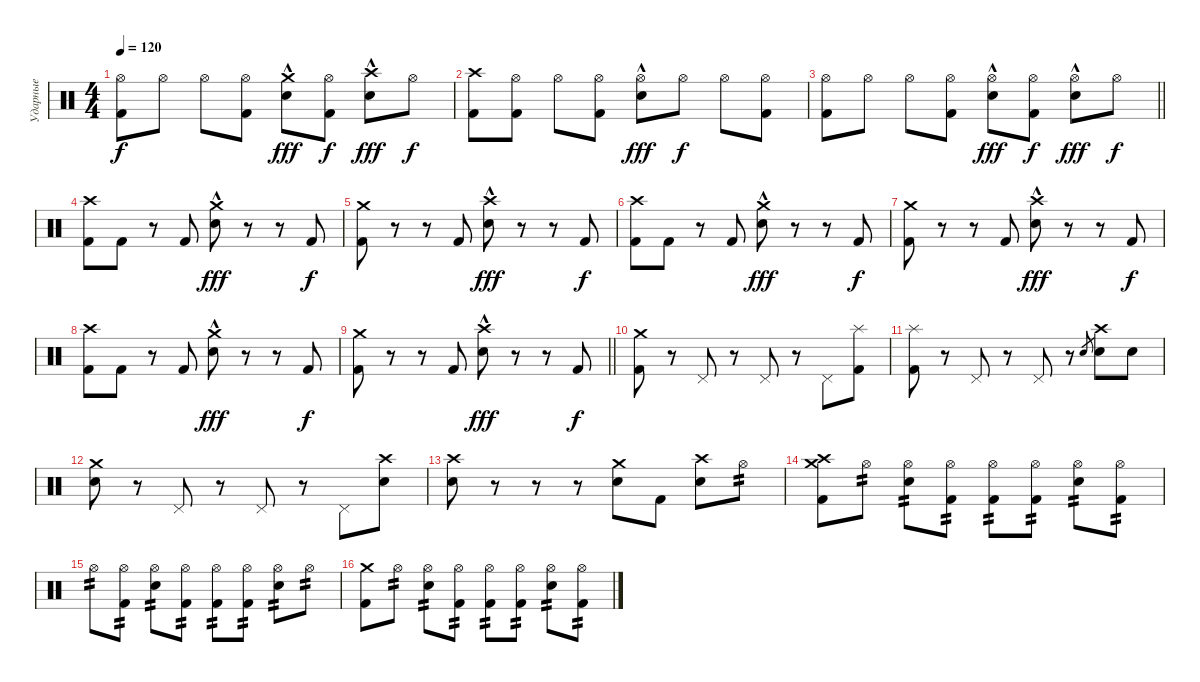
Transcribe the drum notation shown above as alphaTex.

\track ("Ударные" "Ударные") {instrument percussion}
\staff {score}
\articulation defaults
\ts (4 4)
\tempo 120
\clef neutral
\ks c
("Hi-Hat (open)" "Kick (hit) 2").8{dy f} "Hi-Hat (open)".8 "Hi-Hat (open)".8 ("Hi-Hat (open)" "Kick (hit) 2").8 ("Crash medium (hit)" "Electric Snare (hit)"{hac}).8{dy fff} ("Hi-Hat (open)" "Kick (hit) 2").8{dy f} ("Crash high (hit)" "Electric Snare (hit)"{hac}).8{dy fff} "Hi-Hat (open)".8{dy f} |
("Crash high (hit)" "Kick (hit) 2").8 ("Hi-Hat (open)" "Kick (hit) 2").8 "Hi-Hat (open)".8 ("Hi-Hat (open)" "Kick (hit) 2").8 ("Hi-Hat (open)" "Electric Snare (hit)"{hac}).8{dy fff} "Hi-Hat (open)".8{dy f} "Hi-Hat (open)".8 ("Hi-Hat (open)" "Kick (hit) 2").8 |
\barLineRight lightlight
("Hi-Hat (open)" "Kick (hit) 2").8 "Hi-Hat (open)".8 "Hi-Hat (open)".8 ("Hi-Hat (open)" "Kick (hit) 2").8 ("Hi-Hat (open)" "Electric Snare (hit)"{hac}).8{dy fff} ("Hi-Hat (open)" "Kick (hit) 2").8{dy f} ("Hi-Hat (open)" "Electric Snare (hit)"{hac}).8{dy fff} "Hi-Hat (open)".8{dy f} |
("Crash high (hit)" "Kick (hit) 2").8 "Kick (hit) 2".8 r.8 "Kick (hit) 2".8 ("Crash medium (hit)" "Electric Snare (hit)"{hac}).8{dy fff} r.8 r.8 "Kick (hit) 2".8{dy f} |
("Crash medium (hit)" "Kick (hit) 2").8 r.8 r.8 "Kick (hit) 2".8 ("Crash high (hit)" "Electric Snare (hit)"{hac}).8{dy fff} r.8 r.8 "Kick (hit) 2".8{dy f} |
("Crash high (hit)" "Kick (hit) 2").8 "Kick (hit) 2".8 r.8 "Kick (hit) 2".8 ("Crash medium (hit)" "Electric Snare (hit)"{hac}).8{dy fff} r.8 r.8 "Kick (hit) 2".8{dy f} |
("Crash medium (hit)" "Kick (hit) 2").8 r.8 r.8 "Kick (hit) 2".8 ("Crash high (hit)" "Electric Snare (hit)"{hac}).8{dy fff} r.8 r.8 "Kick (hit) 2".8{dy f} |
("Crash high (hit)" "Kick (hit) 2").8 "Kick (hit) 2".8 r.8 "Kick (hit) 2".8 ("Crash medium (hit)" "Electric Snare (hit)"{hac}).8{dy fff} r.8 r.8 "Kick (hit) 2".8{dy f} |
\barLineRight lightlight
("Crash medium (hit)" "Kick (hit) 2").8 r.8 r.8 "Kick (hit) 2".8 ("Crash high (hit)" "Electric Snare (hit)"{hac}).8{dy fff} r.8 r.8 "Kick (hit) 2".8{dy f} |
("Crash medium (hit)" "Kick (hit) 2").8 r.8 "Pedal Hi-Hat (hit)".8 r.8 "Pedal Hi-Hat (hit)".8 r.8 "Pedal Hi-Hat (hit)".8 ("Splash (hit)" "Kick (hit) 2").8 |
("Splash (hit)" "Kick (hit) 2").8 r.8 "Pedal Hi-Hat (hit)".8 r.8 "Pedal Hi-Hat (hit)".8 r.8 "Electric Snare (hit)".8{gr} ("Crash high (hit)" "Electric Snare (hit)").8 "Electric Snare (hit)".8 |
("Crash medium (hit)" "Electric Snare (hit)").8 r.8 "Pedal Hi-Hat (hit)".8 r.8 "Pedal Hi-Hat (hit)".8 r.8 "Pedal Hi-Hat (hit)".8 ("Crash high (hit)" "Electric Snare (hit)").8 |
("Crash high (hit)" "Electric Snare (hit)").8 r.8 r.8 r.8 ("Crash medium (hit)" "Electric Snare (hit)").8 "Kick (hit) 2".8 ("Crash high (hit)" "Electric Snare (hit)").8 "Hi-Hat (open)".8{tp 2} |
("Crash high (hit)" "Crash medium (hit)" "Kick (hit) 2").8 "Hi-Hat (open)".8{tp 2} ("Hi-Hat (open)" "Electric Snare (hit)").8{tp 2} ("Hi-Hat (open)" "Kick (hit) 2").8{tp 2} ("Hi-Hat (open)" "Kick (hit) 2").8{tp 2} ("Hi-Hat (open)" "Kick (hit) 2").8{tp 2} ("Hi-Hat (open)" "Electric Snare (hit)").8{tp 2} ("Hi-Hat (open)" "Kick (hit) 2").8{tp 2} |
"Hi-Hat (open)".8{tp 2} ("Hi-Hat (open)" "Kick (hit) 2").8{tp 2} ("Hi-Hat (open)" "Electric Snare (hit)").8{tp 2} ("Hi-Hat (open)" "Kick (hit) 2").8{tp 2} ("Hi-Hat (open)" "Kick (hit) 2").8{tp 2} ("Hi-Hat (open)" "Kick (hit) 2").8{tp 2} ("Hi-Hat (open)" "Electric Snare (hit)").8{tp 2} "Hi-Hat (open)".8{tp 2} |
("Crash medium (hit)" "Kick (hit) 2").8 "Hi-Hat (open)".8{tp 2} ("Hi-Hat (open)" "Electric Snare (hit)").8{tp 2} ("Hi-Hat (open)" "Kick (hit) 2").8{tp 2} ("Hi-Hat (open)" "Kick (hit) 2").8{tp 2} ("Hi-Hat (open)" "Kick (hit) 2").8{tp 2} ("Hi-Hat (open)" "Electric Snare (hit)").8{tp 2} ("Hi-Hat (open)" "Kick (hit) 2").8{tp 2}
